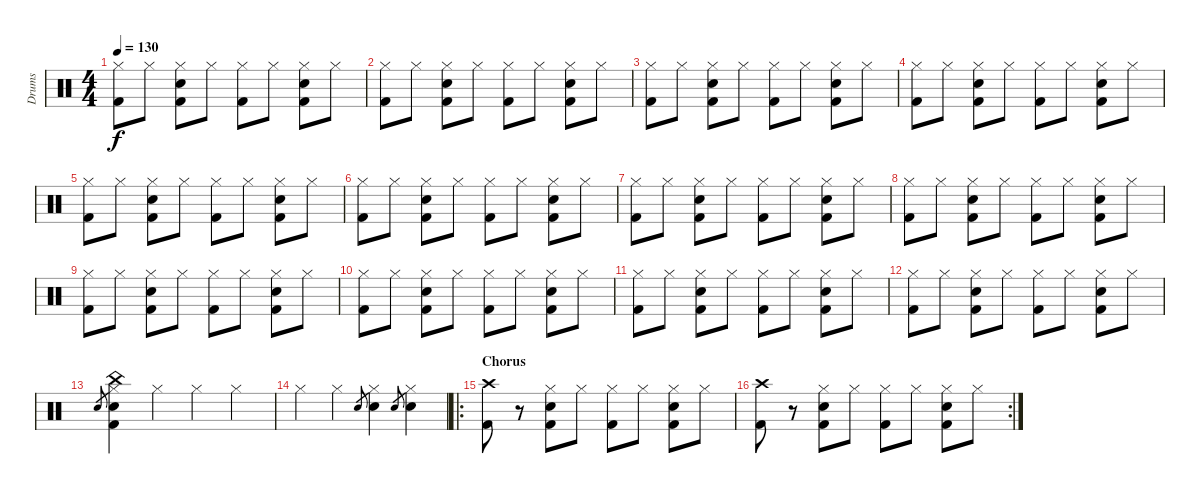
\track ("Drums" "Drums") {instrument percussion}
\staff {score}
\articulation defaults
\ts (4 4)
\tempo 130
\clef neutral
\ks c
("Hi-Hat (closed)" "Kick (hit) 2").8{dy f} "Hi-Hat (closed)".8 ("Hi-Hat (closed)" "Snare (hit) 2" "Kick (hit) 2").8 "Hi-Hat (closed)".8 ("Hi-Hat (closed)" "Kick (hit) 2").8 "Hi-Hat (closed)".8 ("Hi-Hat (closed)" "Snare (hit) 2" "Kick (hit) 2").8 "Hi-Hat (closed)".8 |
("Hi-Hat (closed)" "Kick (hit) 2").8 "Hi-Hat (closed)".8 ("Hi-Hat (closed)" "Snare (hit) 2" "Kick (hit) 2").8 "Hi-Hat (closed)".8 ("Hi-Hat (closed)" "Kick (hit) 2").8 "Hi-Hat (closed)".8 ("Hi-Hat (closed)" "Snare (hit) 2" "Kick (hit) 2").8 "Hi-Hat (closed)".8 |
("Hi-Hat (closed)" "Kick (hit) 2").8 "Hi-Hat (closed)".8 ("Hi-Hat (closed)" "Snare (hit) 2" "Kick (hit) 2").8 "Hi-Hat (closed)".8 ("Hi-Hat (closed)" "Kick (hit) 2").8 "Hi-Hat (closed)".8 ("Hi-Hat (closed)" "Snare (hit) 2" "Kick (hit) 2").8 "Hi-Hat (closed)".8 |
("Hi-Hat (closed)" "Kick (hit) 2").8 "Hi-Hat (closed)".8 ("Hi-Hat (closed)" "Snare (hit) 2" "Kick (hit) 2").8 "Hi-Hat (closed)".8 ("Hi-Hat (closed)" "Kick (hit) 2").8 "Hi-Hat (closed)".8 ("Hi-Hat (closed)" "Snare (hit) 2" "Kick (hit) 2").8 "Hi-Hat (closed)".8 |
("Hi-Hat (closed)" "Kick (hit) 2").8 "Hi-Hat (closed)".8 ("Hi-Hat (closed)" "Snare (hit) 2" "Kick (hit) 2").8 "Hi-Hat (closed)".8 ("Hi-Hat (closed)" "Kick (hit) 2").8 "Hi-Hat (closed)".8 ("Hi-Hat (closed)" "Snare (hit) 2" "Kick (hit) 2").8 "Hi-Hat (closed)".8 |
("Hi-Hat (closed)" "Kick (hit) 2").8 "Hi-Hat (closed)".8 ("Hi-Hat (closed)" "Snare (hit) 2" "Kick (hit) 2").8 "Hi-Hat (closed)".8 ("Hi-Hat (closed)" "Kick (hit) 2").8 "Hi-Hat (closed)".8 ("Hi-Hat (closed)" "Snare (hit) 2" "Kick (hit) 2").8 "Hi-Hat (closed)".8 |
("Hi-Hat (closed)" "Kick (hit) 2").8 "Hi-Hat (closed)".8 ("Hi-Hat (closed)" "Snare (hit) 2" "Kick (hit) 2").8 "Hi-Hat (closed)".8 ("Hi-Hat (closed)" "Kick (hit) 2").8 "Hi-Hat (closed)".8 ("Hi-Hat (closed)" "Snare (hit) 2" "Kick (hit) 2").8 "Hi-Hat (closed)".8 |
("Hi-Hat (closed)" "Kick (hit) 2").8 "Hi-Hat (closed)".8 ("Hi-Hat (closed)" "Snare (hit) 2" "Kick (hit) 2").8 "Hi-Hat (closed)".8 ("Hi-Hat (closed)" "Kick (hit) 2").8 "Hi-Hat (closed)".8 ("Hi-Hat (closed)" "Snare (hit) 2" "Kick (hit) 2").8 "Hi-Hat (closed)".8 |
("Hi-Hat (closed)" "Kick (hit) 2").8 "Hi-Hat (closed)".8 ("Hi-Hat (closed)" "Snare (hit) 2" "Kick (hit) 2").8 "Hi-Hat (closed)".8 ("Hi-Hat (closed)" "Kick (hit) 2").8 "Hi-Hat (closed)".8 ("Hi-Hat (closed)" "Snare (hit) 2" "Kick (hit) 2").8 "Hi-Hat (closed)".8 |
("Hi-Hat (closed)" "Kick (hit) 2").8 "Hi-Hat (closed)".8 ("Hi-Hat (closed)" "Snare (hit) 2" "Kick (hit) 2").8 "Hi-Hat (closed)".8 ("Hi-Hat (closed)" "Kick (hit) 2").8 "Hi-Hat (closed)".8 ("Hi-Hat (closed)" "Snare (hit) 2" "Kick (hit) 2").8 "Hi-Hat (closed)".8 |
("Hi-Hat (closed)" "Kick (hit) 2").8 "Hi-Hat (closed)".8 ("Hi-Hat (closed)" "Snare (hit) 2" "Kick (hit) 2").8 "Hi-Hat (closed)".8 ("Hi-Hat (closed)" "Kick (hit) 2").8 "Hi-Hat (closed)".8 ("Hi-Hat (closed)" "Snare (hit) 2" "Kick (hit) 2").8 "Hi-Hat (closed)".8 |
("Hi-Hat (closed)" "Kick (hit) 2").8 "Hi-Hat (closed)".8 ("Hi-Hat (closed)" "Snare (hit) 2" "Kick (hit) 2").8 "Hi-Hat (closed)".8 ("Hi-Hat (closed)" "Kick (hit) 2").8 "Hi-Hat (closed)".8 ("Hi-Hat (closed)" "Snare (hit) 2" "Kick (hit) 2").8 "Hi-Hat (closed)".8 |
"Snare (hit) 2".8{gr} ("Hi-Hat (closed)" "Snare (hit) 2" "China (hit)" "Kick (hit) 2").4 "Hi-Hat (closed)".4 "Hi-Hat (closed)".4 "Hi-Hat (closed)".4 |
"Hi-Hat (closed)".4 "Hi-Hat (closed)".4 "Snare (hit) 2".8{gr} ("Hi-Hat (closed)" "Snare (hit) 2").4 "Snare (hit) 2".8{gr} ("Hi-Hat (closed)" "Snare (hit) 2").4 |
\ro
\section ("" "Chorus")
("Crash high (hit)" "Kick (hit) 2").8 r.8 ("Hi-Hat (closed)" "Snare (hit) 2" "Kick (hit) 2").8 "Hi-Hat (closed)".8 ("Hi-Hat (closed)" "Kick (hit) 2").8 "Hi-Hat (closed)".8 ("Hi-Hat (closed)" "Snare (hit) 2" "Kick (hit) 2").8 "Hi-Hat (closed)".8 |
\rc 2
("Crash high (hit)" "Kick (hit) 2").8 r.8 ("Hi-Hat (closed)" "Snare (hit) 2" "Kick (hit) 2").8 "Hi-Hat (closed)".8 ("Hi-Hat (closed)" "Kick (hit) 2").8 "Hi-Hat (closed)".8 ("Hi-Hat (closed)" "Snare (hit) 2" "Kick (hit) 2").8 "Hi-Hat (closed)".8
